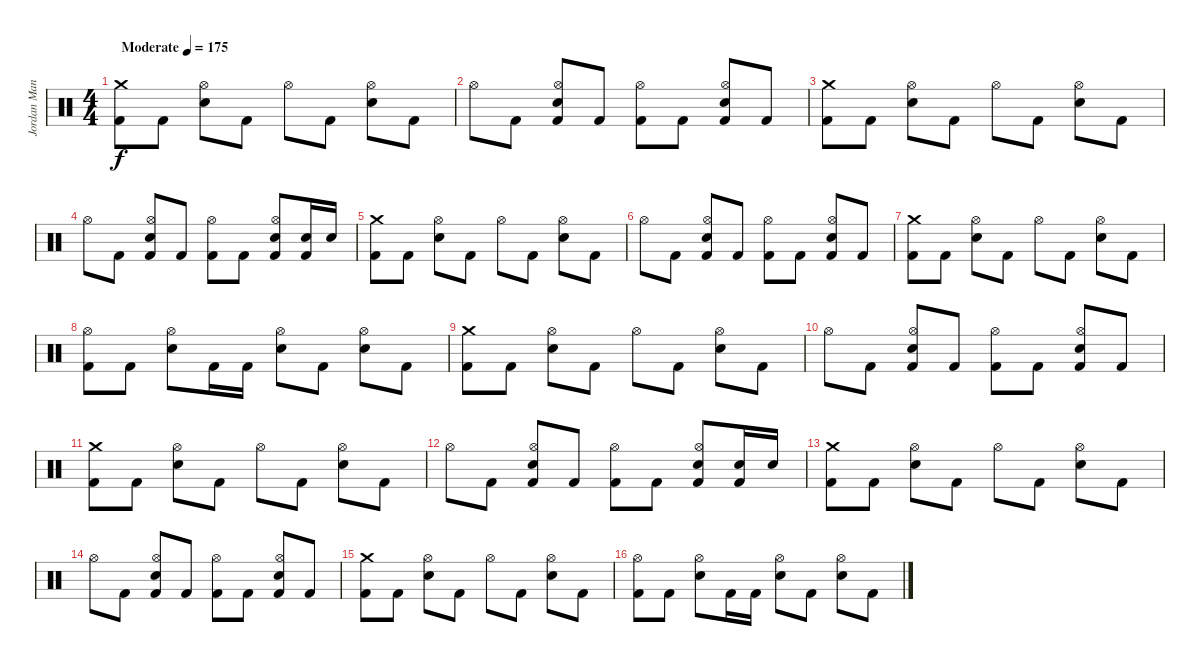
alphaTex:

\track ("Jordan Mancino" "Jordan Man") {instrument percussion}
\staff {score}
\articulation defaults
\ts (4 4)
\tempo (175 "Moderate")
\clef neutral
\ks c
("Crash medium (hit)" "Kick (hit) 2").8{dy f} "Kick (hit) 2".8 ("Hi-Hat (open)" "Electric Snare (hit)").8 "Kick (hit) 2".8 "Hi-Hat (open)".8 "Kick (hit) 2".8 ("Hi-Hat (open)" "Electric Snare (hit)").8 "Kick (hit) 2".8 |
"Hi-Hat (open)".8 "Kick (hit) 2".8 ("Hi-Hat (open)" "Electric Snare (hit)" "Kick (hit) 2").8 "Kick (hit) 2".8 ("Hi-Hat (open)" "Kick (hit) 2").8 "Kick (hit) 2".8 ("Hi-Hat (open)" "Electric Snare (hit)" "Kick (hit) 2").8 "Kick (hit) 2".8 |
("Crash medium (hit)" "Kick (hit) 2").8 "Kick (hit) 2".8 ("Hi-Hat (open)" "Electric Snare (hit)").8 "Kick (hit) 2".8 "Hi-Hat (open)".8 "Kick (hit) 2".8 ("Hi-Hat (open)" "Electric Snare (hit)").8 "Kick (hit) 2".8 |
"Hi-Hat (open)".8 "Kick (hit) 2".8 ("Hi-Hat (open)" "Electric Snare (hit)" "Kick (hit) 2").8 "Kick (hit) 2".8 ("Hi-Hat (open)" "Kick (hit) 2").8 "Kick (hit) 2".8 ("Hi-Hat (open)" "Electric Snare (hit)" "Kick (hit) 2").8 ("Electric Snare (hit)" "Kick (hit) 2").16 "Electric Snare (hit)".16 |
("Crash medium (hit)" "Kick (hit) 2").8 "Kick (hit) 2".8 ("Hi-Hat (open)" "Electric Snare (hit)").8 "Kick (hit) 2".8 "Hi-Hat (open)".8 "Kick (hit) 2".8 ("Hi-Hat (open)" "Electric Snare (hit)").8 "Kick (hit) 2".8 |
"Hi-Hat (open)".8 "Kick (hit) 2".8 ("Hi-Hat (open)" "Electric Snare (hit)" "Kick (hit) 2").8 "Kick (hit) 2".8 ("Hi-Hat (open)" "Kick (hit) 2").8 "Kick (hit) 2".8 ("Hi-Hat (open)" "Electric Snare (hit)" "Kick (hit) 2").8 "Kick (hit) 2".8 |
("Crash medium (hit)" "Kick (hit) 2").8 "Kick (hit) 2".8 ("Hi-Hat (open)" "Electric Snare (hit)").8 "Kick (hit) 2".8 "Hi-Hat (open)".8 "Kick (hit) 2".8 ("Hi-Hat (open)" "Electric Snare (hit)").8 "Kick (hit) 2".8 |
("Hi-Hat (open)" "Kick (hit) 2").8 "Kick (hit) 2".8 ("Hi-Hat (open)" "Electric Snare (hit)").8 "Kick (hit) 2".16 "Kick (hit) 2".16 ("Hi-Hat (open)" "Electric Snare (hit)").8 "Kick (hit) 2".8 ("Hi-Hat (open)" "Electric Snare (hit)").8 "Kick (hit) 2".8 |
("Crash medium (hit)" "Kick (hit) 2").8 "Kick (hit) 2".8 ("Hi-Hat (open)" "Electric Snare (hit)").8 "Kick (hit) 2".8 "Hi-Hat (open)".8 "Kick (hit) 2".8 ("Hi-Hat (open)" "Electric Snare (hit)").8 "Kick (hit) 2".8 |
"Hi-Hat (open)".8 "Kick (hit) 2".8 ("Hi-Hat (open)" "Electric Snare (hit)" "Kick (hit) 2").8 "Kick (hit) 2".8 ("Hi-Hat (open)" "Kick (hit) 2").8 "Kick (hit) 2".8 ("Hi-Hat (open)" "Electric Snare (hit)" "Kick (hit) 2").8 "Kick (hit) 2".8 |
("Crash medium (hit)" "Kick (hit) 2").8 "Kick (hit) 2".8 ("Hi-Hat (open)" "Electric Snare (hit)").8 "Kick (hit) 2".8 "Hi-Hat (open)".8 "Kick (hit) 2".8 ("Hi-Hat (open)" "Electric Snare (hit)").8 "Kick (hit) 2".8 |
"Hi-Hat (open)".8 "Kick (hit) 2".8 ("Hi-Hat (open)" "Electric Snare (hit)" "Kick (hit) 2").8 "Kick (hit) 2".8 ("Hi-Hat (open)" "Kick (hit) 2").8 "Kick (hit) 2".8 ("Hi-Hat (open)" "Electric Snare (hit)" "Kick (hit) 2").8 ("Electric Snare (hit)" "Kick (hit) 2").16 "Electric Snare (hit)".16 |
("Crash medium (hit)" "Kick (hit) 2").8 "Kick (hit) 2".8 ("Hi-Hat (open)" "Electric Snare (hit)").8 "Kick (hit) 2".8 "Hi-Hat (open)".8 "Kick (hit) 2".8 ("Hi-Hat (open)" "Electric Snare (hit)").8 "Kick (hit) 2".8 |
"Hi-Hat (open)".8 "Kick (hit) 2".8 ("Hi-Hat (open)" "Electric Snare (hit)" "Kick (hit) 2").8 "Kick (hit) 2".8 ("Hi-Hat (open)" "Kick (hit) 2").8 "Kick (hit) 2".8 ("Hi-Hat (open)" "Electric Snare (hit)" "Kick (hit) 2").8 "Kick (hit) 2".8 |
("Crash medium (hit)" "Kick (hit) 2").8 "Kick (hit) 2".8 ("Hi-Hat (open)" "Electric Snare (hit)").8 "Kick (hit) 2".8 "Hi-Hat (open)".8 "Kick (hit) 2".8 ("Hi-Hat (open)" "Electric Snare (hit)").8 "Kick (hit) 2".8 |
("Hi-Hat (open)" "Kick (hit) 2").8 "Kick (hit) 2".8 ("Hi-Hat (open)" "Electric Snare (hit)").8 "Kick (hit) 2".16 "Kick (hit) 2".16 ("Hi-Hat (open)" "Electric Snare (hit)").8 "Kick (hit) 2".8 ("Hi-Hat (open)" "Electric Snare (hit)").8 "Kick (hit) 2".8
